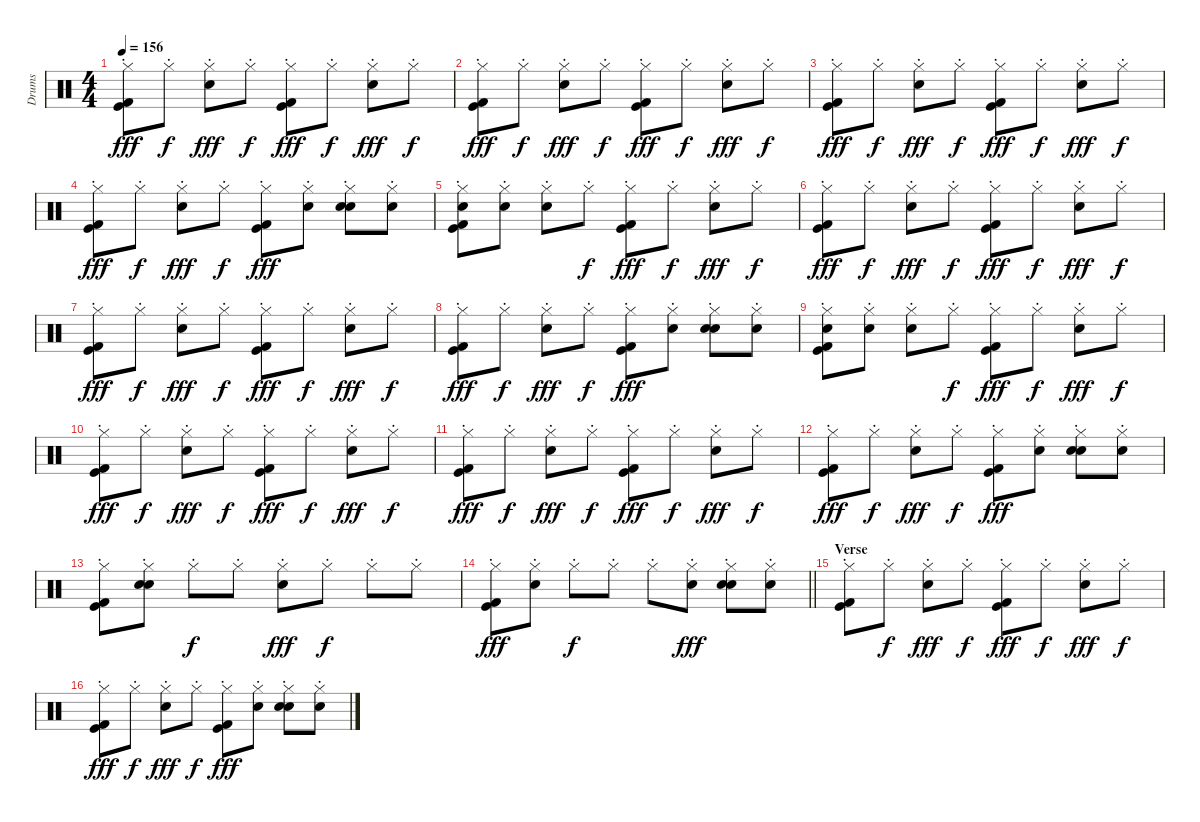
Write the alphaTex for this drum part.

\track ("Drums" "Drums") {instrument percussion}
\staff {score}
\articulation defaults
\ts (4 4)
\tempo 156
\clef neutral
\ks c
("Hi-Hat (closed)"{st} "Kick (hit) 2" "Kick (hit)").8{dy fff} "Hi-Hat (closed)"{st}.8{dy f} ("Hi-Hat (closed)"{st} "Electric Snare (hit)").8{dy fff} "Hi-Hat (closed)"{st}.8{dy f} ("Hi-Hat (closed)"{st} "Kick (hit) 2" "Kick (hit)").8{dy fff} "Hi-Hat (closed)"{st}.8{dy f} ("Hi-Hat (closed)"{st} "Electric Snare (hit)").8{dy fff} "Hi-Hat (closed)"{st}.8{dy f} |
("Hi-Hat (closed)"{st} "Kick (hit) 2" "Kick (hit)").8{dy fff} "Hi-Hat (closed)"{st}.8{dy f} ("Hi-Hat (closed)"{st} "Electric Snare (hit)").8{dy fff} "Hi-Hat (closed)"{st}.8{dy f} ("Hi-Hat (closed)"{st} "Kick (hit) 2" "Kick (hit)").8{dy fff} "Hi-Hat (closed)"{st}.8{dy f} ("Hi-Hat (closed)"{st} "Electric Snare (hit)").8{dy fff} "Hi-Hat (closed)"{st}.8{dy f} |
("Hi-Hat (closed)"{st} "Kick (hit) 2" "Kick (hit)").8{dy fff} "Hi-Hat (closed)"{st}.8{dy f} ("Hi-Hat (closed)"{st} "Electric Snare (hit)").8{dy fff} "Hi-Hat (closed)"{st}.8{dy f} ("Hi-Hat (closed)"{st} "Kick (hit) 2" "Kick (hit)").8{dy fff} "Hi-Hat (closed)"{st}.8{dy f} ("Hi-Hat (closed)"{st} "Electric Snare (hit)").8{dy fff} "Hi-Hat (closed)"{st}.8{dy f} |
("Hi-Hat (closed)"{st} "Kick (hit) 2" "Kick (hit)").8{dy fff} "Hi-Hat (closed)"{st}.8{dy f} ("Hi-Hat (closed)"{st} "Electric Snare (hit)").8{dy fff} "Hi-Hat (closed)"{st}.8{dy f} ("Hi-Hat (closed)"{st} "Kick (hit) 2" "Kick (hit)").8{dy fff} ("Hi-Hat (closed)"{st} "Hand Clap (hit)").8 ("Hi-Hat (closed)"{st} "Hand Clap (hit)" "Electric Snare (hit)").8 ("Hi-Hat (closed)"{st} "Hand Clap (hit)").8 |
("Hi-Hat (closed)"{st} "Hand Clap (hit)" "Kick (hit) 2" "Kick (hit)").8 ("Hi-Hat (closed)"{st} "Hand Clap (hit)").8 ("Hi-Hat (closed)"{st} "Electric Snare (hit)").8 "Hi-Hat (closed)"{st}.8{dy f} ("Hi-Hat (closed)"{st} "Kick (hit) 2" "Kick (hit)").8{dy fff} "Hi-Hat (closed)"{st}.8{dy f} ("Hi-Hat (closed)"{st} "Electric Snare (hit)").8{dy fff} "Hi-Hat (closed)"{st}.8{dy f} |
("Hi-Hat (closed)"{st} "Kick (hit) 2" "Kick (hit)").8{dy fff} "Hi-Hat (closed)"{st}.8{dy f} ("Hi-Hat (closed)"{st} "Electric Snare (hit)").8{dy fff} "Hi-Hat (closed)"{st}.8{dy f} ("Hi-Hat (closed)"{st} "Kick (hit) 2" "Kick (hit)").8{dy fff} "Hi-Hat (closed)"{st}.8{dy f} ("Hi-Hat (closed)"{st} "Electric Snare (hit)").8{dy fff} "Hi-Hat (closed)"{st}.8{dy f} |
("Hi-Hat (closed)"{st} "Kick (hit) 2" "Kick (hit)").8{dy fff} "Hi-Hat (closed)"{st}.8{dy f} ("Hi-Hat (closed)"{st} "Electric Snare (hit)").8{dy fff} "Hi-Hat (closed)"{st}.8{dy f} ("Hi-Hat (closed)"{st} "Kick (hit) 2" "Kick (hit)").8{dy fff} "Hi-Hat (closed)"{st}.8{dy f} ("Hi-Hat (closed)"{st} "Electric Snare (hit)").8{dy fff} "Hi-Hat (closed)"{st}.8{dy f} |
("Hi-Hat (closed)"{st} "Kick (hit) 2" "Kick (hit)").8{dy fff} "Hi-Hat (closed)"{st}.8{dy f} ("Hi-Hat (closed)"{st} "Electric Snare (hit)").8{dy fff} "Hi-Hat (closed)"{st}.8{dy f} ("Hi-Hat (closed)"{st} "Kick (hit) 2" "Kick (hit)").8{dy fff} ("Hi-Hat (closed)"{st} "Hand Clap (hit)").8 ("Hi-Hat (closed)"{st} "Hand Clap (hit)" "Electric Snare (hit)").8 ("Hi-Hat (closed)"{st} "Hand Clap (hit)").8 |
("Hi-Hat (closed)"{st} "Hand Clap (hit)" "Kick (hit) 2" "Kick (hit)").8 ("Hi-Hat (closed)"{st} "Hand Clap (hit)").8 ("Hi-Hat (closed)"{st} "Electric Snare (hit)").8 "Hi-Hat (closed)"{st}.8{dy f} ("Hi-Hat (closed)"{st} "Kick (hit) 2" "Kick (hit)").8{dy fff} "Hi-Hat (closed)"{st}.8{dy f} ("Hi-Hat (closed)"{st} "Electric Snare (hit)").8{dy fff} "Hi-Hat (closed)"{st}.8{dy f} |
("Hi-Hat (closed)"{st} "Kick (hit) 2" "Kick (hit)").8{dy fff} "Hi-Hat (closed)"{st}.8{dy f} ("Hi-Hat (closed)"{st} "Electric Snare (hit)").8{dy fff} "Hi-Hat (closed)"{st}.8{dy f} ("Hi-Hat (closed)"{st} "Kick (hit) 2" "Kick (hit)").8{dy fff} "Hi-Hat (closed)"{st}.8{dy f} ("Hi-Hat (closed)"{st} "Electric Snare (hit)").8{dy fff} "Hi-Hat (closed)"{st}.8{dy f} |
("Hi-Hat (closed)"{st} "Kick (hit) 2" "Kick (hit)").8{dy fff} "Hi-Hat (closed)"{st}.8{dy f} ("Hi-Hat (closed)"{st} "Electric Snare (hit)").8{dy fff} "Hi-Hat (closed)"{st}.8{dy f} ("Hi-Hat (closed)"{st} "Kick (hit) 2" "Kick (hit)").8{dy fff} "Hi-Hat (closed)"{st}.8{dy f} ("Hi-Hat (closed)"{st} "Electric Snare (hit)").8{dy fff} "Hi-Hat (closed)"{st}.8{dy f} |
("Hi-Hat (closed)"{st} "Kick (hit) 2" "Kick (hit)").8{dy fff} "Hi-Hat (closed)"{st}.8{dy f} ("Hi-Hat (closed)"{st} "Electric Snare (hit)").8{dy fff} "Hi-Hat (closed)"{st}.8{dy f} ("Hi-Hat (closed)"{st} "Kick (hit) 2" "Kick (hit)").8{dy fff} ("Hi-Hat (closed)"{st} "Hand Clap (hit)").8 ("Hi-Hat (closed)"{st} "Hand Clap (hit)" "Electric Snare (hit)").8 ("Hi-Hat (closed)"{st} "Hand Clap (hit)").8 |
("Hi-Hat (closed)"{st} "Kick (hit) 2" "Kick (hit)").8 ("Hi-Hat (closed)"{st} "Hand Clap (hit)" "Electric Snare (hit)").8 "Hi-Hat (closed)"{st}.8{dy f} "Hi-Hat (closed)"{st}.8 ("Hi-Hat (closed)"{st} "Electric Snare (hit)").8{dy fff} "Hi-Hat (closed)"{st}.8{dy f} "Hi-Hat (closed)"{st}.8 "Hi-Hat (closed)"{st}.8 |
\barLineRight lightlight
("Hi-Hat (closed)"{st} "Kick (hit) 2" "Kick (hit)").8{dy fff} ("Hi-Hat (closed)"{st} "Electric Snare (hit)").8 "Hi-Hat (closed)"{st}.8{dy f} "Hi-Hat (closed)"{st}.8 "Hi-Hat (closed)"{st}.8 ("Hi-Hat (closed)"{st} "Hand Clap (hit)").8{dy fff} ("Hi-Hat (closed)"{st} "Electric Snare (hit)" "Hand Clap (hit)").8 ("Hi-Hat (closed)"{st} "Hand Clap (hit)").8 |
\section ("" "Verse")
("Hi-Hat (closed)"{st} "Kick (hit) 2" "Kick (hit)").8 "Hi-Hat (closed)"{st}.8{dy f} ("Hi-Hat (closed)"{st} "Electric Snare (hit)").8{dy fff} "Hi-Hat (closed)"{st}.8{dy f} ("Hi-Hat (closed)"{st} "Kick (hit) 2" "Kick (hit)").8{dy fff} "Hi-Hat (closed)"{st}.8{dy f} ("Hi-Hat (closed)"{st} "Electric Snare (hit)").8{dy fff} "Hi-Hat (closed)"{st}.8{dy f} |
("Hi-Hat (closed)"{st} "Kick (hit) 2" "Kick (hit)").8{dy fff} "Hi-Hat (closed)"{st}.8{dy f} ("Hi-Hat (closed)"{st} "Electric Snare (hit)").8{dy fff} "Hi-Hat (closed)"{st}.8{dy f} ("Hi-Hat (closed)"{st} "Kick (hit) 2" "Kick (hit)").8{dy fff} ("Hi-Hat (closed)"{st} "Hand Clap (hit)").8 ("Hi-Hat (closed)"{st} "Hand Clap (hit)" "Electric Snare (hit)").8 ("Hi-Hat (closed)"{st} "Hand Clap (hit)").8
